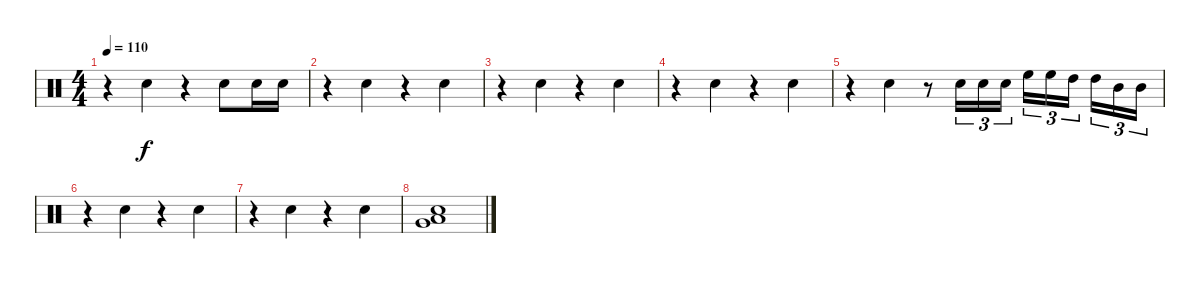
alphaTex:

\track "" {instrument percussion}
\staff {score}
\articulation defaults
\ts (4 4)
\tempo 110
\clef neutral
\ks c
r.4{dy f} "Electric Snare (hit)".4 r.4 "Electric Snare (hit)".8 "Electric Snare (hit)".16 "Electric Snare (hit)".16 |
r.4 "Electric Snare (hit)".4 r.4 "Electric Snare (hit)".4 |
r.4 "Electric Snare (hit)".4 r.4 "Electric Snare (hit)".4 |
r.4 "Electric Snare (hit)".4 r.4 "Electric Snare (hit)".4 |
r.4 "Electric Snare (hit)".4 r.8 "Electric Snare (hit)".16{tu (3 2)} "Electric Snare (hit)".16{tu (3 2)} "Electric Snare (hit)".16{tu (3 2)} "High Floor Tom (hit)".16{tu (3 2)} "High Floor Tom (hit)".16{tu (3 2)} "High Tom (hit)".16{tu (3 2)} "High Tom (hit)".16{tu (3 2)} "Mid Tom (hit)".16{tu (3 2)} "Mid Tom (hit)".16{tu (3 2)} |
r.4 "Electric Snare (hit)".4 r.4 "Electric Snare (hit)".4 |
r.4 "Electric Snare (hit)".4 r.4 "Electric Snare (hit)".4 |
("Electric Snare (hit)" "Very Low Tom (hit)" "Low Tom (hit)").1
